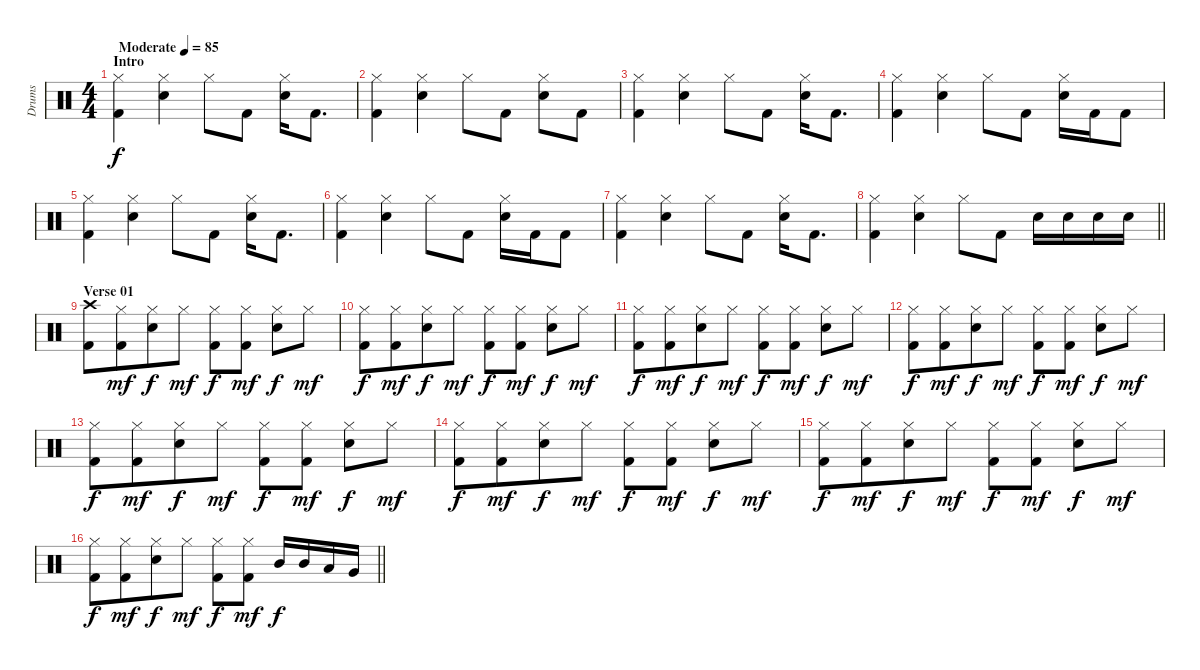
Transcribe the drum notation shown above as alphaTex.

\track ("Drums" "Drums") {instrument percussion}
\staff {score}
\articulation defaults
\ts (4 4)
\section ("" "Intro")
\tempo (85 "Moderate")
\clef neutral
\ks c
("Hi-Hat (closed)" "Kick (hit) 2").4{dy f} ("Hi-Hat (closed)" "Snare (hit) 2").4 "Hi-Hat (closed)".8 "Kick (hit) 2".8 ("Hi-Hat (closed)" "Snare (hit) 2").16 "Kick (hit) 2".8{d} |
("Hi-Hat (closed)" "Kick (hit) 2").4{beam merge} ("Hi-Hat (closed)" "Snare (hit) 2").4 "Hi-Hat (closed)".8 "Kick (hit) 2".8 ("Hi-Hat (closed)" "Snare (hit) 2").8{beam merge} "Kick (hit) 2".8 |
("Hi-Hat (closed)" "Kick (hit) 2").4 ("Hi-Hat (closed)" "Snare (hit) 2").4 "Hi-Hat (closed)".8 "Kick (hit) 2".8 ("Hi-Hat (closed)" "Snare (hit) 2").16 "Kick (hit) 2".8{d} |
("Hi-Hat (closed)" "Kick (hit) 2").4{beam merge} ("Hi-Hat (closed)" "Snare (hit) 2").4 "Hi-Hat (closed)".8 "Kick (hit) 2".8 ("Hi-Hat (closed)" "Snare (hit) 2").16{beam merge} "Kick (hit) 2".16{beam merge} "Kick (hit) 2".8 |
("Hi-Hat (closed)" "Kick (hit) 2").4 ("Hi-Hat (closed)" "Snare (hit) 2").4 "Hi-Hat (closed)".8 "Kick (hit) 2".8 ("Hi-Hat (closed)" "Snare (hit) 2").16 "Kick (hit) 2".8{d} |
("Hi-Hat (closed)" "Kick (hit) 2").4{beam merge} ("Hi-Hat (closed)" "Snare (hit) 2").4 "Hi-Hat (closed)".8 "Kick (hit) 2".8 ("Hi-Hat (closed)" "Snare (hit) 2").16{beam merge} "Kick (hit) 2".16{beam merge} "Kick (hit) 2".8 |
("Hi-Hat (closed)" "Kick (hit) 2").4 ("Hi-Hat (closed)" "Snare (hit) 2").4 "Hi-Hat (closed)".8{beam merge} "Kick (hit) 2".8 ("Hi-Hat (closed)" "Snare (hit) 2").16 "Kick (hit) 2".8{d} |
\barLineRight lightlight
("Hi-Hat (closed)" "Kick (hit) 2").4{beam merge} ("Hi-Hat (closed)" "Snare (hit) 2").4 "Hi-Hat (closed)".8 "Kick (hit) 2".8 "Snare (hit) 2".16 "Snare (hit) 2".16 "Snare (hit) 2".16 "Snare (hit) 2".16 |
\section ("" "Verse 01")
("Crash high (hit)" "Kick (hit) 2").8{beam merge} ("Hi-Hat (closed)" "Kick (hit) 2").8{dy mf beam merge} ("Hi-Hat (closed)" "Snare (hit) 2").8{dy f beam merge} "Hi-Hat (closed)".8{dy mf} ("Hi-Hat (closed)" "Kick (hit) 2").8{dy f} ("Hi-Hat (closed)" "Kick (hit) 2").8{dy mf} ("Hi-Hat (closed)" "Snare (hit) 2").8{dy f} "Hi-Hat (closed)".8{dy mf} |
("Hi-Hat (closed)" "Kick (hit) 2").8{dy f beam merge} ("Hi-Hat (closed)" "Kick (hit) 2").8{dy mf beam merge} ("Hi-Hat (closed)" "Snare (hit) 2").8{dy f beam merge} "Hi-Hat (closed)".8{dy mf} ("Hi-Hat (closed)" "Kick (hit) 2").8{dy f} ("Hi-Hat (closed)" "Kick (hit) 2").8{dy mf} ("Hi-Hat (closed)" "Snare (hit) 2").8{dy f} "Hi-Hat (closed)".8{dy mf} |
("Hi-Hat (closed)" "Kick (hit) 2").8{dy f beam merge} ("Hi-Hat (closed)" "Kick (hit) 2").8{dy mf beam merge} ("Hi-Hat (closed)" "Snare (hit) 2").8{dy f beam merge} "Hi-Hat (closed)".8{dy mf} ("Hi-Hat (closed)" "Kick (hit) 2").8{dy f} ("Hi-Hat (closed)" "Kick (hit) 2").8{dy mf} ("Hi-Hat (closed)" "Snare (hit) 2").8{dy f} "Hi-Hat (closed)".8{dy mf} |
("Hi-Hat (closed)" "Kick (hit) 2").8{dy f beam merge} ("Hi-Hat (closed)" "Kick (hit) 2").8{dy mf beam merge} ("Hi-Hat (closed)" "Snare (hit) 2").8{dy f beam merge} "Hi-Hat (closed)".8{dy mf} ("Hi-Hat (closed)" "Kick (hit) 2").8{dy f} ("Hi-Hat (closed)" "Kick (hit) 2").8{dy mf} ("Hi-Hat (closed)" "Snare (hit) 2").8{dy f} "Hi-Hat (closed)".8{dy mf} |
("Hi-Hat (closed)" "Kick (hit) 2").8{dy f beam merge} ("Hi-Hat (closed)" "Kick (hit) 2").8{dy mf beam merge} ("Hi-Hat (closed)" "Snare (hit) 2").8{dy f beam merge} "Hi-Hat (closed)".8{dy mf} ("Hi-Hat (closed)" "Kick (hit) 2").8{dy f} ("Hi-Hat (closed)" "Kick (hit) 2").8{dy mf} ("Hi-Hat (closed)" "Snare (hit) 2").8{dy f} "Hi-Hat (closed)".8{dy mf} |
("Hi-Hat (closed)" "Kick (hit) 2").8{dy f beam merge} ("Hi-Hat (closed)" "Kick (hit) 2").8{dy mf beam merge} ("Hi-Hat (closed)" "Snare (hit) 2").8{dy f beam merge} "Hi-Hat (closed)".8{dy mf} ("Hi-Hat (closed)" "Kick (hit) 2").8{dy f} ("Hi-Hat (closed)" "Kick (hit) 2").8{dy mf} ("Hi-Hat (closed)" "Snare (hit) 2").8{dy f} "Hi-Hat (closed)".8{dy mf} |
("Hi-Hat (closed)" "Kick (hit) 2").8{dy f beam merge} ("Hi-Hat (closed)" "Kick (hit) 2").8{dy mf beam merge} ("Hi-Hat (closed)" "Snare (hit) 2").8{dy f beam merge} "Hi-Hat (closed)".8{dy mf} ("Hi-Hat (closed)" "Kick (hit) 2").8{dy f} ("Hi-Hat (closed)" "Kick (hit) 2").8{dy mf} ("Hi-Hat (closed)" "Snare (hit) 2").8{dy f} "Hi-Hat (closed)".8{dy mf} |
\barLineRight lightlight
("Hi-Hat (closed)" "Kick (hit) 2").8{dy f beam merge} ("Hi-Hat (closed)" "Kick (hit) 2").8{dy mf beam merge} ("Hi-Hat (closed)" "Snare (hit) 2").8{dy f beam merge} "Hi-Hat (closed)".8{dy mf} ("Hi-Hat (closed)" "Kick (hit) 2").8{dy f} ("Hi-Hat (closed)" "Kick (hit) 2").8{dy mf} "Mid Tom (hit)".16{dy f} "Mid Tom (hit)".16 "Low Tom (hit)".16{beam merge} "Very Low Tom (hit)".16
